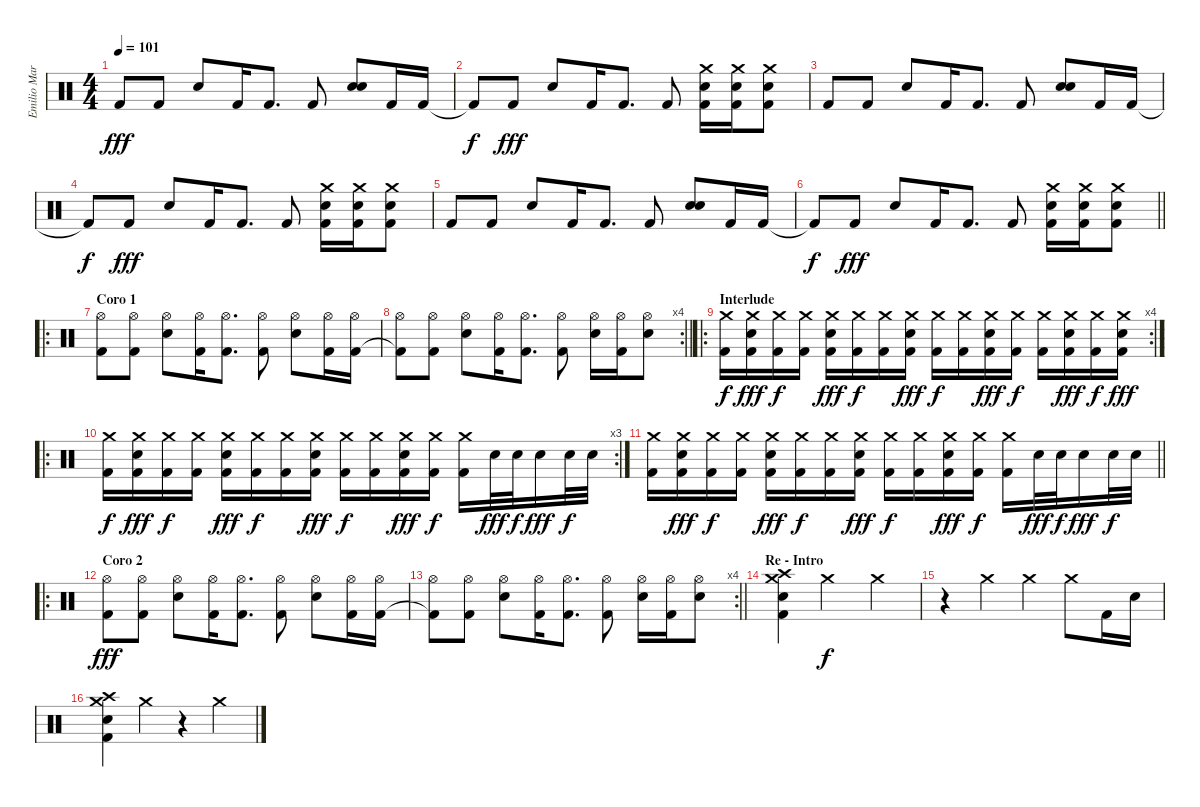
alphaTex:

\track ("Emilio Marquez" "Emilio Mar") {instrument percussion}
\staff {score}
\articulation defaults
\ts (4 4)
\tempo 101
\clef neutral
\ks c "Kick (hit) 2".8{dy fff} "Kick (hit) 2".8 "Snare (hit) 2".8 "Kick (hit) 2".16 "Kick (hit) 2".8{d} "Kick (hit) 2".8
("Snare (hit) 2" "Snare (hit)").8 "Kick (hit) 2".16 "Kick (hit) 2".16 |
"Kick (hit) 2"{t}.8{dy f} "Kick (hit) 2".8{dy fff} "Snare (hit) 2".8 "Kick (hit) 2".16 "Kick (hit) 2".8{d} "Kick (hit) 2".8 ("Crash medium (hit)" "Snare (hit) 2" "Kick (hit) 2").16 ("Crash medium (hit)" "Snare (hit) 2" "Kick (hit) 2").16 ("Crash medium (hit)" "Snare (hit) 2" "Kick (hit) 2").8 |
"Kick (hit) 2".8 "Kick (hit) 2".8 "Snare (hit) 2".8 "Kick (hit) 2".16 "Kick (hit) 2".8{d} "Kick (hit) 2".8 ("Snare (hit) 2" "Snare (hit)").8 "Kick (hit) 2".16 "Kick (hit) 2".16 |
"Kick (hit) 2"{t}.8{dy f} "Kick (hit) 2".8{dy fff} "Snare (hit) 2".8 "Kick (hit) 2".16 "Kick (hit) 2".8{d} "Kick (hit) 2".8 ("Crash medium (hit)" "Snare (hit) 2" "Kick (hit) 2").16 ("Crash medium (hit)" "Snare (hit) 2" "Kick (hit) 2").16 ("Crash medium (hit)" "Snare (hit) 2" "Kick (hit) 2").8 |
"Kick (hit) 2".8 "Kick (hit) 2".8 "Snare (hit) 2".8 "Kick (hit) 2".16 "Kick (hit) 2".8{d} "Kick (hit) 2".8 ("Snare (hit) 2" "Snare (hit)").8 "Kick (hit) 2".16 "Kick (hit) 2".16 |
\barLineRight lightlight "Kick (hit) 2"{t}.8{dy f} "Kick (hit) 2".8{dy fff} "Snare (hit) 2".8 "Kick (hit) 2".16 "Kick (hit) 2".8{d} "Kick (hit) 2".8
("Crash medium (hit)" "Snare (hit) 2" "Kick (hit) 2").16 ("Crash medium (hit)" "Snare (hit) 2" "Kick (hit) 2").16 ("Crash medium (hit)" "Snare (hit) 2" "Kick (hit) 2").8 |
\ro
\section ("" "Coro 1")
("Hi-Hat (open)" "Kick (hit) 2").8 ("Hi-Hat (open)" "Kick (hit) 2").8 ("Hi-Hat (open)" "Snare (hit) 2").8 ("Hi-Hat (open)" "Kick (hit) 2").16 ("Hi-Hat (open)" "Kick (hit) 2").8{d} ("Hi-Hat (open)" "Kick (hit) 2").8 ("Hi-Hat (open)" "Snare (hit) 2").8 ("Hi-Hat (open)" "Kick (hit) 2").16 ("Hi-Hat (open)" "Kick (hit) 2").16 |
\rc 4
\barLineRight lightlight
("Hi-Hat (open)" "Kick (hit) 2"{t}).8 ("Hi-Hat (open)" "Kick (hit) 2").8 ("Hi-Hat (open)" "Snare (hit) 2").8 ("Hi-Hat (open)" "Kick (hit) 2").16 ("Hi-Hat (open)" "Kick (hit) 2").8{d} ("Hi-Hat (open)" "Kick (hit) 2").8 ("Hi-Hat (open)" "Snare (hit) 2").16 ("Hi-Hat (open)" "Kick (hit) 2").16 ("Hi-Hat (open)" "Snare (hit) 2").8 |
\ro
\rc 4
\section ("" "Interlude")
("Crash medium (hit)" "Kick (hit) 2").16{dy f} ("Crash medium (hit)" "Snare (hit) 2" "Kick (hit) 2").16{dy fff} ("Crash medium (hit)" "Kick (hit) 2").16{dy f} ("Crash medium (hit)" "Kick (hit) 2").16 ("Crash medium (hit)" "Snare (hit) 2" "Kick (hit) 2").16{dy fff} ("Crash medium (hit)" "Kick (hit) 2").16{dy f} ("Crash medium (hit)" "Kick (hit) 2").16 ("Crash medium (hit)" "Snare (hit) 2" "Kick (hit) 2").16{dy fff} ("Crash medium (hit)" "Kick (hit) 2").16{dy f} ("Crash medium (hit)" "Kick (hit) 2").16 ("Crash medium (hit)" "Snare (hit) 2" "Kick (hit) 2").16{dy fff} ("Crash medium (hit)" "Kick (hit) 2").16{dy f} ("Crash medium (hit)" "Kick (hit) 2").16 ("Crash medium (hit)" "Snare (hit) 2" "Kick (hit) 2").16{dy fff} ("Crash medium (hit)" "Kick (hit) 2").16{dy f} ("Crash medium (hit)" "Snare (hit) 2" "Kick (hit) 2").16{dy fff} |
\ro
\rc 3
("Crash medium (hit)" "Kick (hit) 2").16{dy f} ("Crash medium (hit)" "Snare (hit) 2" "Kick (hit) 2").16{dy fff} ("Crash medium (hit)" "Kick (hit) 2").16{dy f} ("Crash medium (hit)" "Kick (hit) 2").16 ("Crash medium (hit)" "Snare (hit) 2" "Kick (hit) 2").16{dy fff} ("Crash medium (hit)" "Kick (hit) 2").16{dy f} ("Crash medium (hit)" "Kick (hit) 2").16 ("Crash medium (hit)" "Snare (hit) 2" "Kick (hit) 2").16{dy fff} ("Crash medium (hit)" "Kick (hit) 2").16{dy f} ("Crash medium (hit)" "Kick (hit) 2").16 ("Crash medium (hit)" "Snare (hit) 2" "Kick (hit) 2").16{dy fff} ("Crash medium (hit)" "Kick (hit) 2").16{dy f} ("Crash medium (hit)" "Kick (hit) 2").16 "Snare (hit) 2".32{dy fff} "Snare (hit) 2".32{dy f} "Snare (hit) 2".16{dy fff} "Snare (hit) 2".32{dy f} "Snare (hit) 2".32 |
\barLineRight lightlight
("Crash medium (hit)" "Kick (hit) 2").16 ("Crash medium (hit)" "Snare (hit) 2" "Kick (hit) 2").16{dy fff} ("Crash medium (hit)" "Kick (hit) 2").16{dy f} ("Crash medium (hit)" "Kick (hit) 2").16 ("Crash medium (hit)" "Snare (hit) 2" "Kick (hit) 2").16{dy fff} ("Crash medium (hit)" "Kick (hit) 2").16{dy f} ("Crash medium (hit)" "Kick (hit) 2").16 ("Crash medium (hit)" "Snare (hit) 2" "Kick (hit) 2").16{dy fff} ("Crash medium (hit)" "Kick (hit) 2").16{dy f} ("Crash medium (hit)" "Kick (hit) 2").16 ("Crash medium (hit)" "Snare (hit) 2" "Kick (hit) 2").16{dy fff} ("Crash medium (hit)" "Kick (hit) 2").16{dy f} ("Crash medium (hit)" "Kick (hit) 2").16 "Snare (hit) 2".32{dy fff} "Snare (hit) 2".32{dy f} "Snare (hit) 2".16{dy fff} "Snare (hit) 2".32{dy f} "Snare (hit) 2".32 |
\ro
\section ("" "Coro 2")
("Hi-Hat (open)" "Kick (hit) 2").8{dy fff} ("Hi-Hat (open)" "Kick (hit) 2").8 ("Hi-Hat (open)" "Snare (hit) 2").8 ("Hi-Hat (open)" "Kick (hit) 2").16 ("Hi-Hat (open)" "Kick (hit) 2").8{d} ("Hi-Hat (open)" "Kick (hit) 2").8 ("Hi-Hat (open)" "Snare (hit) 2").8 ("Hi-Hat (open)" "Kick (hit) 2").16 ("Hi-Hat (open)" "Kick (hit) 2").16 |
\rc 4
\barLineRight lightlight
("Hi-Hat (open)" "Kick (hit) 2"{t}).8 ("Hi-Hat (open)" "Kick (hit) 2").8 ("Hi-Hat (open)" "Snare (hit) 2").8 ("Hi-Hat (open)" "Kick (hit) 2").16 ("Hi-Hat (open)" "Kick (hit) 2").8{d} ("Hi-Hat (open)" "Kick (hit) 2").8 ("Hi-Hat (open)" "Snare (hit) 2").16 ("Hi-Hat (open)" "Kick (hit) 2").16 ("Hi-Hat (open)" "Snare (hit) 2").8 |
\section ("" "Re - Intro")
("Crash high (hit)" "Crash medium (hit)" "Snare (hit) 2" "Kick (hit) 2").4 "Crash medium (hit)".2{dy f} "Crash medium (hit)".4 |
r.4 "Crash medium (hit)".4 "Crash medium (hit)".4 "Crash medium (hit)".8 "Kick (hit) 2".16 "Snare (hit) 2".16 |
("Crash high (hit)" "Crash medium (hit)" "Snare (hit) 2" "Kick (hit) 2").4 "Crash medium (hit)".4 r.4 "Crash medium (hit)".4
